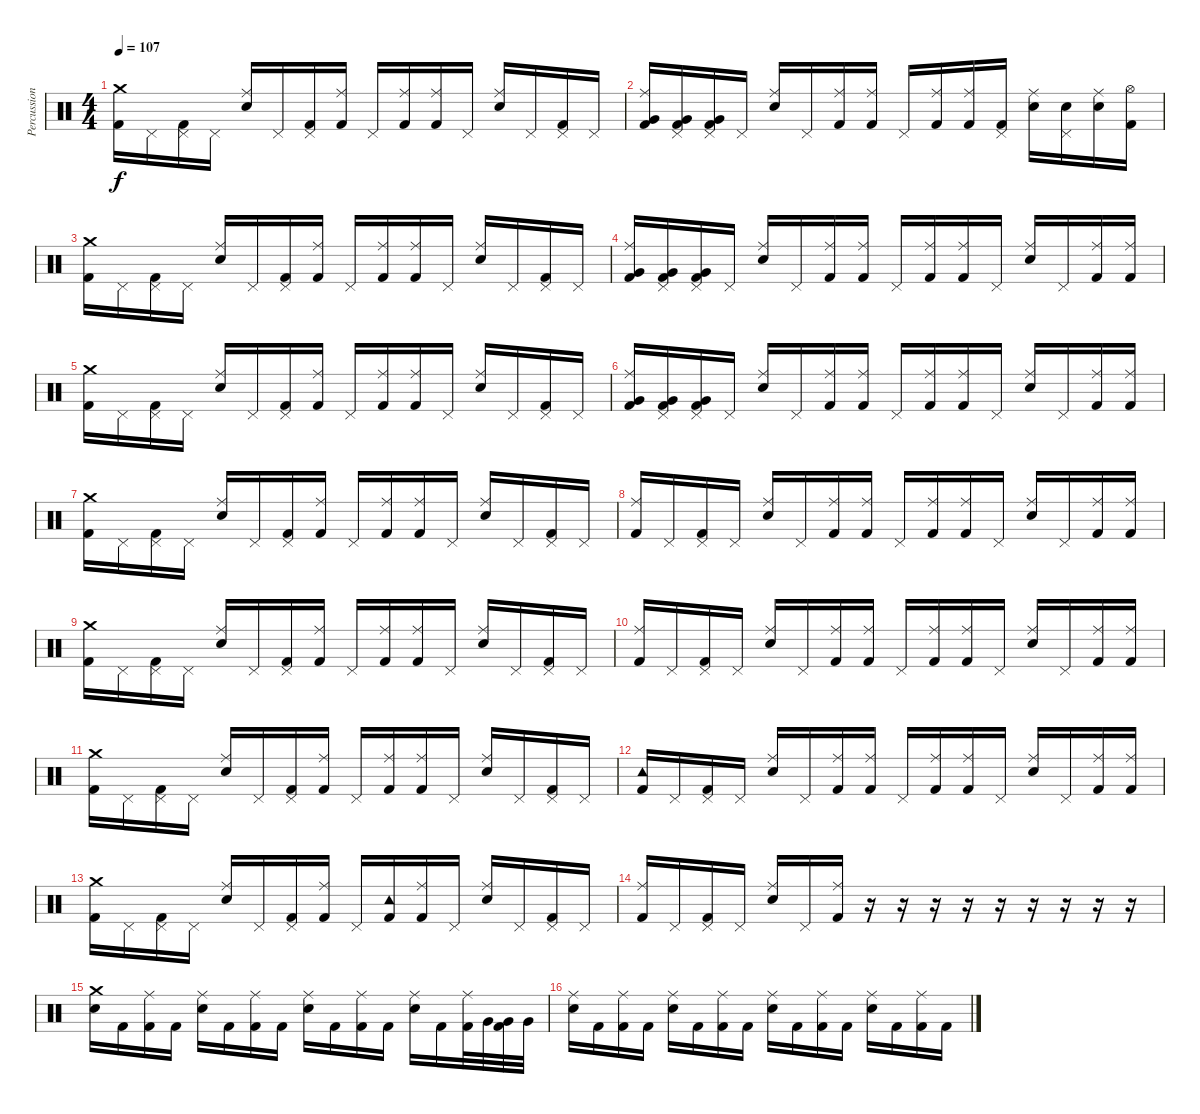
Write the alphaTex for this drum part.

\track ("Percussion" "Percussion") {instrument percussion}
\staff {score}
\articulation defaults
\ts (4 4)
\tempo 107
\clef neutral
\ks c
("Crash medium (hit)" "Kick (hit) 2").16{dy f} "Pedal Hi-Hat (hit)".16 ("Pedal Hi-Hat (hit)" "Kick (hit) 2").16 "Pedal Hi-Hat (hit)".16 ("Ride (middle)" "Electric Snare (hit)").16 "Pedal Hi-Hat (hit)".16 ("Pedal Hi-Hat (hit)" "Kick (hit) 2").16 ("Ride (middle)" "Kick (hit) 2").16 "Pedal Hi-Hat (hit)".16 ("Ride (middle)" "Kick (hit) 2").16 ("Ride (middle)" "Kick (hit) 2").16 "Pedal Hi-Hat (hit)".16 ("Ride (middle)" "Electric Snare (hit)").16 "Pedal Hi-Hat (hit)".16 ("Pedal Hi-Hat (hit)" "Kick (hit) 2").16 "Pedal Hi-Hat (hit)".16 |
("Ride (middle)" "Very Low Tom (hit)" "Kick (hit) 2").16 ("Pedal Hi-Hat (hit)" "Very Low Tom (hit)" "Kick (hit) 2").16 ("Pedal Hi-Hat (hit)" "Very Low Tom (hit)" "Kick (hit) 2").16 "Pedal Hi-Hat (hit)".16 ("Ride (middle)" "Electric Snare (hit)").16 "Pedal Hi-Hat (hit)".16 ("Ride (middle)" "Kick (hit) 2").16 ("Ride (middle)" "Kick (hit) 2").16 "Pedal Hi-Hat (hit)".16 ("Ride (middle)" "Kick (hit) 2").16 ("Ride (middle)" "Kick (hit) 2").16 ("Pedal Hi-Hat (hit)" "Kick (hit) 2").16 ("Ride (middle)" "Electric Snare (hit)").16 ("Pedal Hi-Hat (hit)" "Electric Snare (hit)").16 ("Ride (middle)" "Electric Snare (hit)").16 ("Hi-Hat (open)" "Kick (hit) 2").16 |
("Crash medium (hit)" "Kick (hit) 2").16 "Pedal Hi-Hat (hit)".16 ("Pedal Hi-Hat (hit)" "Kick (hit) 2").16 "Pedal Hi-Hat (hit)".16 ("Ride (middle)" "Electric Snare (hit)").16 "Pedal Hi-Hat (hit)".16 ("Pedal Hi-Hat (hit)" "Kick (hit) 2").16 ("Ride (middle)" "Kick (hit) 2").16 "Pedal Hi-Hat (hit)".16 ("Ride (middle)" "Kick (hit) 2").16 ("Ride (middle)" "Kick (hit) 2").16 "Pedal Hi-Hat (hit)".16 ("Ride (middle)" "Electric Snare (hit)").16 "Pedal Hi-Hat (hit)".16 ("Pedal Hi-Hat (hit)" "Kick (hit) 2").16 "Pedal Hi-Hat (hit)".16 |
("Ride (middle)" "Very Low Tom (hit)" "Kick (hit) 2").16 ("Pedal Hi-Hat (hit)" "Very Low Tom (hit)" "Kick (hit) 2").16 ("Pedal Hi-Hat (hit)" "Very Low Tom (hit)" "Kick (hit) 2").16 "Pedal Hi-Hat (hit)".16 ("Ride (middle)" "Electric Snare (hit)").16 "Pedal Hi-Hat (hit)".16 ("Ride (middle)" "Kick (hit) 2").16 ("Ride (middle)" "Kick (hit) 2").16 "Pedal Hi-Hat (hit)".16 ("Ride (middle)" "Kick (hit) 2").16 ("Ride (middle)" "Kick (hit) 2").16 "Pedal Hi-Hat (hit)".16 ("Ride (middle)" "Electric Snare (hit)").16 "Pedal Hi-Hat (hit)".16 ("Ride (middle)" "Kick (hit) 2").16 ("Ride (middle)" "Kick (hit) 2").16 |
("Crash medium (hit)" "Kick (hit) 2").16 "Pedal Hi-Hat (hit)".16 ("Pedal Hi-Hat (hit)" "Kick (hit) 2").16 "Pedal Hi-Hat (hit)".16 ("Ride (middle)" "Electric Snare (hit)").16 "Pedal Hi-Hat (hit)".16 ("Pedal Hi-Hat (hit)" "Kick (hit) 2").16 ("Ride (middle)" "Kick (hit) 2").16 "Pedal Hi-Hat (hit)".16 ("Ride (middle)" "Kick (hit) 2").16 ("Ride (middle)" "Kick (hit) 2").16 "Pedal Hi-Hat (hit)".16 ("Ride (middle)" "Electric Snare (hit)").16 "Pedal Hi-Hat (hit)".16 ("Pedal Hi-Hat (hit)" "Kick (hit) 2").16 "Pedal Hi-Hat (hit)".16 |
("Ride (middle)" "Very Low Tom (hit)" "Kick (hit) 2").16 ("Pedal Hi-Hat (hit)" "Very Low Tom (hit)" "Kick (hit) 2").16 ("Pedal Hi-Hat (hit)" "Very Low Tom (hit)" "Kick (hit) 2").16 "Pedal Hi-Hat (hit)".16 ("Ride (middle)" "Electric Snare (hit)").16 "Pedal Hi-Hat (hit)".16 ("Ride (middle)" "Kick (hit) 2").16 ("Ride (middle)" "Kick (hit) 2").16 "Pedal Hi-Hat (hit)".16 ("Ride (middle)" "Kick (hit) 2").16 ("Ride (middle)" "Kick (hit) 2").16 "Pedal Hi-Hat (hit)".16 ("Ride (middle)" "Electric Snare (hit)").16 "Pedal Hi-Hat (hit)".16 ("Ride (middle)" "Kick (hit) 2").16 ("Ride (middle)" "Kick (hit) 2").16 |
("Crash medium (hit)" "Kick (hit) 2").16 "Pedal Hi-Hat (hit)".16 ("Pedal Hi-Hat (hit)" "Kick (hit) 2").16 "Pedal Hi-Hat (hit)".16 ("Ride (middle)" "Electric Snare (hit)").16 "Pedal Hi-Hat (hit)".16 ("Pedal Hi-Hat (hit)" "Kick (hit) 2").16 ("Ride (middle)" "Kick (hit) 2").16 "Pedal Hi-Hat (hit)".16 ("Ride (middle)" "Kick (hit) 2").16 ("Ride (middle)" "Kick (hit) 2").16 "Pedal Hi-Hat (hit)".16 ("Ride (middle)" "Electric Snare (hit)").16 "Pedal Hi-Hat (hit)".16 ("Pedal Hi-Hat (hit)" "Kick (hit) 2").16 "Pedal Hi-Hat (hit)".16 |
("Ride (middle)" "Kick (hit) 2").16 "Pedal Hi-Hat (hit)".16 ("Pedal Hi-Hat (hit)" "Kick (hit) 2").16 "Pedal Hi-Hat (hit)".16 ("Ride (middle)" "Electric Snare (hit)").16 "Pedal Hi-Hat (hit)".16 ("Ride (middle)" "Kick (hit) 2").16 ("Ride (middle)" "Kick (hit) 2").16 "Pedal Hi-Hat (hit)".16 ("Ride (middle)" "Kick (hit) 2").16 ("Ride (middle)" "Kick (hit) 2").16 "Pedal Hi-Hat (hit)".16 ("Ride (middle)" "Electric Snare (hit)").16 "Pedal Hi-Hat (hit)".16 ("Ride (middle)" "Kick (hit) 2").16 ("Ride (middle)" "Kick (hit) 2").16 |
("Crash medium (hit)" "Kick (hit) 2").16 "Pedal Hi-Hat (hit)".16 ("Pedal Hi-Hat (hit)" "Kick (hit) 2").16 "Pedal Hi-Hat (hit)".16 ("Ride (middle)" "Electric Snare (hit)").16 "Pedal Hi-Hat (hit)".16 ("Pedal Hi-Hat (hit)" "Kick (hit) 2").16 ("Ride (middle)" "Kick (hit) 2").16 "Pedal Hi-Hat (hit)".16 ("Ride (middle)" "Kick (hit) 2").16 ("Ride (middle)" "Kick (hit) 2").16 "Pedal Hi-Hat (hit)".16 ("Ride (middle)" "Electric Snare (hit)").16 "Pedal Hi-Hat (hit)".16 ("Pedal Hi-Hat (hit)" "Kick (hit) 2").16 "Pedal Hi-Hat (hit)".16 |
("Ride (middle)" "Kick (hit) 2").16 "Pedal Hi-Hat (hit)".16 ("Pedal Hi-Hat (hit)" "Kick (hit) 2").16 "Pedal Hi-Hat (hit)".16 ("Ride (middle)" "Electric Snare (hit)").16 "Pedal Hi-Hat (hit)".16 ("Ride (middle)" "Kick (hit) 2").16 ("Ride (middle)" "Kick (hit) 2").16 "Pedal Hi-Hat (hit)".16 ("Ride (middle)" "Kick (hit) 2").16 ("Ride (middle)" "Kick (hit) 2").16 "Pedal Hi-Hat (hit)".16 ("Ride (middle)" "Electric Snare (hit)").16 "Pedal Hi-Hat (hit)".16 ("Ride (middle)" "Kick (hit) 2").16 ("Ride (middle)" "Kick (hit) 2").16 |
("Crash medium (hit)" "Kick (hit) 2").16 "Pedal Hi-Hat (hit)".16 ("Pedal Hi-Hat (hit)" "Kick (hit) 2").16 "Pedal Hi-Hat (hit)".16 ("Ride (middle)" "Electric Snare (hit)").16 "Pedal Hi-Hat (hit)".16 ("Pedal Hi-Hat (hit)" "Kick (hit) 2").16 ("Ride (middle)" "Kick (hit) 2").16 "Pedal Hi-Hat (hit)".16 ("Ride (middle)" "Kick (hit) 2").16 ("Ride (middle)" "Kick (hit) 2").16 "Pedal Hi-Hat (hit)".16 ("Ride (middle)" "Electric Snare (hit)").16 "Pedal Hi-Hat (hit)".16 ("Pedal Hi-Hat (hit)" "Kick (hit) 2").16 "Pedal Hi-Hat (hit)".16 |
("Tambourine (hit)" "Kick (hit) 2").16 "Pedal Hi-Hat (hit)".16 ("Pedal Hi-Hat (hit)" "Kick (hit) 2").16 "Pedal Hi-Hat (hit)".16 ("Ride (middle)" "Electric Snare (hit)").16 "Pedal Hi-Hat (hit)".16 ("Ride (middle)" "Kick (hit) 2").16 ("Ride (middle)" "Kick (hit) 2").16 "Pedal Hi-Hat (hit)".16 ("Ride (middle)" "Kick (hit) 2").16 ("Ride (middle)" "Kick (hit) 2").16 "Pedal Hi-Hat (hit)".16 ("Ride (middle)" "Electric Snare (hit)").16 "Pedal Hi-Hat (hit)".16 ("Ride (middle)" "Kick (hit) 2").16 ("Ride (middle)" "Kick (hit) 2").16 |
("Crash medium (hit)" "Kick (hit) 2").16 "Pedal Hi-Hat (hit)".16 ("Pedal Hi-Hat (hit)" "Kick (hit) 2").16 "Pedal Hi-Hat (hit)".16 ("Ride (middle)" "Electric Snare (hit)").16 "Pedal Hi-Hat (hit)".16 ("Pedal Hi-Hat (hit)" "Kick (hit) 2").16 ("Ride (middle)" "Kick (hit) 2").16 "Pedal Hi-Hat (hit)".16 ("Tambourine (hit)" "Kick (hit) 2").16 ("Ride (middle)" "Kick (hit) 2").16 "Pedal Hi-Hat (hit)".16 ("Ride (middle)" "Electric Snare (hit)").16 "Pedal Hi-Hat (hit)".16 ("Pedal Hi-Hat (hit)" "Kick (hit) 2").16 "Pedal Hi-Hat (hit)".16 |
("Ride (middle)" "Kick (hit) 2").16 "Pedal Hi-Hat (hit)".16 ("Pedal Hi-Hat (hit)" "Kick (hit) 2").16 "Pedal Hi-Hat (hit)".16 ("Ride (middle)" "Electric Snare (hit)").16 "Pedal Hi-Hat (hit)".16 ("Ride (middle)" "Kick (hit) 2").16 r.16 r.16 r.16 r.16 r.16 r.16 r.16 r.16 r.16 |
("Crash medium (hit)" "Electric Snare (hit)").16 "Kick (hit) 2".16 ("Ride (middle)" "Kick (hit) 2").16 "Kick (hit) 2".16 ("Ride (middle)" "Electric Snare (hit)").16 "Kick (hit) 2".16 ("Ride (middle)" "Kick (hit) 2").16 "Kick (hit) 2".16 ("Ride (middle)" "Electric Snare (hit)").16 "Kick (hit) 2".16 ("Ride (middle)" "Kick (hit) 2").16 "Kick (hit) 2".16 ("Ride (middle)" "Electric Snare (hit)").16 "Kick (hit) 2".16 ("Ride (middle)" "Kick (hit) 2").32 "Very Low Tom (hit)".32 ("Very Low Tom (hit)" "Kick (hit) 2").32 "Very Low Tom (hit)".32 |
("Ride (middle)" "Electric Snare (hit)").16 "Kick (hit) 2".16 ("Ride (middle)" "Kick (hit) 2").16 "Kick (hit) 2".16 ("Ride (middle)" "Electric Snare (hit)").16 "Kick (hit) 2".16 ("Ride (middle)" "Kick (hit) 2").16 "Kick (hit) 2".16 ("Ride (middle)" "Electric Snare (hit)").16 "Kick (hit) 2".16 ("Ride (middle)" "Kick (hit) 2").16 "Kick (hit) 2".16 ("Ride (middle)" "Electric Snare (hit)").16 "Kick (hit) 2".16 ("Ride (middle)" "Kick (hit) 2").16 "Kick (hit) 2".16
